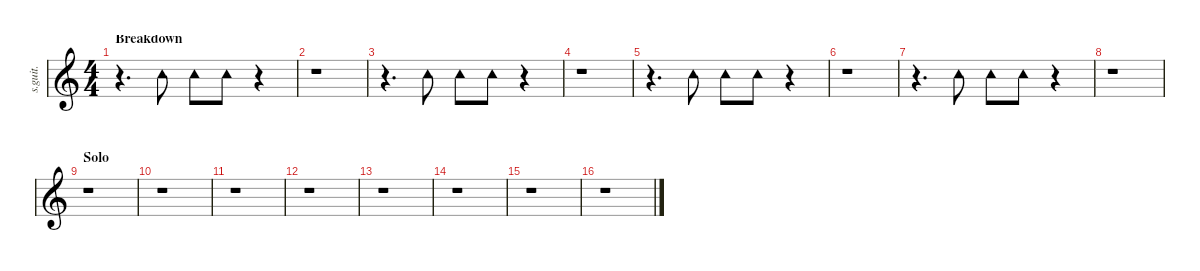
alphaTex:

\defaultSystemsLayout 4
\hideDynamics
\bracketExtendMode nobrackets
\track ("Tambourine" "s.guit.") {instrument percussion}
\staff {score}
\articulation defaults
\ts (4 4)
\section ("" "Breakdown")
\tempo (82 hide)
\clef g2
\ks c
r.4{d dy ff} "Tambourine (hit)".8{lyrics (0 "") lyrics (1 "") lyrics (2 "") lyrics (3 "") lyrics (4 "")} "Tambourine (hit)".8{lyrics (0 "") lyrics (1 "") lyrics (2 "") lyrics (3 "") lyrics (4 "")} "Tambourine (hit)".8{lyrics (0 "") lyrics (1 "") lyrics (2 "") lyrics (3 "") lyrics (4 "")} r.4 |
r.1 |
r.4{d} "Tambourine (hit)".8{lyrics (0 "") lyrics (1 "") lyrics (2 "") lyrics (3 "") lyrics (4 "")} "Tambourine (hit)".8{lyrics (0 "") lyrics (1 "") lyrics (2 "") lyrics (3 "") lyrics (4 "")} "Tambourine (hit)".8{lyrics (0 "") lyrics (1 "") lyrics (2 "") lyrics (3 "") lyrics (4 "")} r.4 |
r.1 |
r.4{d} "Tambourine (hit)".8{lyrics (0 "") lyrics (1 "") lyrics (2 "") lyrics (3 "") lyrics (4 "")} "Tambourine (hit)".8{lyrics (0 "") lyrics (1 "") lyrics (2 "") lyrics (3 "") lyrics (4 "")} "Tambourine (hit)".8{lyrics (0 "") lyrics (1 "") lyrics (2 "") lyrics (3 "") lyrics (4 "")} r.4 |
r.1 |
r.4{d} "Tambourine (hit)".8{lyrics (0 "") lyrics (1 "") lyrics (2 "") lyrics (3 "") lyrics (4 "")} "Tambourine (hit)".8{lyrics (0 "") lyrics (1 "") lyrics (2 "") lyrics (3 "") lyrics (4 "")} "Tambourine (hit)".8{lyrics (0 "") lyrics (1 "") lyrics (2 "") lyrics (3 "") lyrics (4 "")} r.4 |
r.1 |
\section ("" "Solo")
r.1 |
r.1 |
r.1 |
r.1 |
r.1 |
r.1 |
r.1 |
r.1
